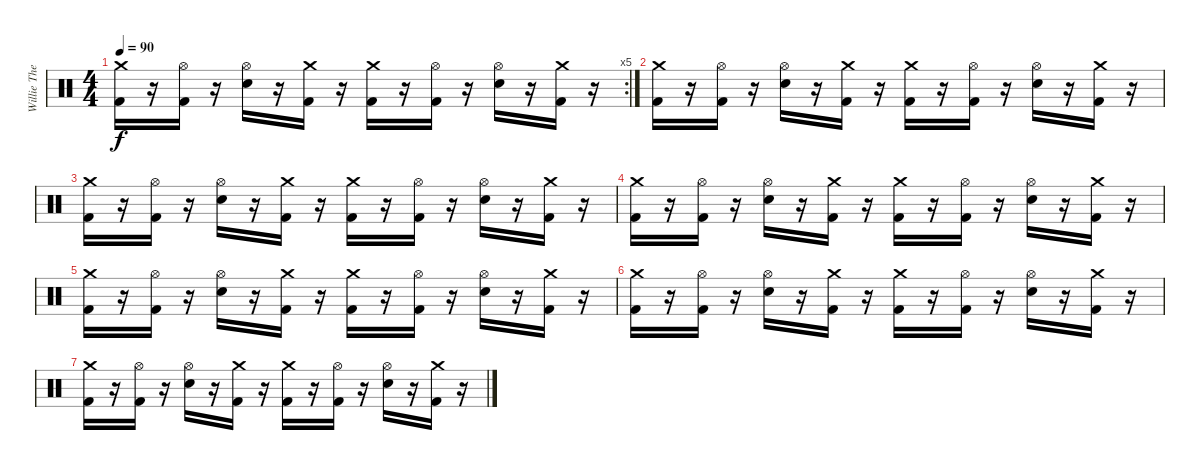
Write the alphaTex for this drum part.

\track ("Willie The New Guy" "Willie The") {instrument percussion}
\staff {score}
\articulation defaults
\rc 5
\ts (4 4)
\tempo 90
\clef neutral
\ks c
("Crash medium (hit)" "Kick (hit) 2").16{dy f} r.16 ("Hi-Hat (open)" "Kick (hit) 2").16 r.16 ("Hi-Hat (open)" "Snare (hit) 2").16 r.16 ("Crash medium (hit)" "Kick (hit) 2").16 r.16 ("Crash medium (hit)" "Kick (hit) 2").16 r.16 ("Hi-Hat (open)" "Kick (hit) 2").16 r.16 ("Hi-Hat (open)" "Snare (hit) 2").16 r.16 ("Crash medium (hit)" "Kick (hit) 2").16 r.16 |
("Crash medium (hit)" "Kick (hit) 2").16{volume 12} r.16 ("Hi-Hat (open)" "Kick (hit) 2").16 r.16 ("Hi-Hat (open)" "Snare (hit) 2").16 r.16 ("Crash medium (hit)" "Kick (hit) 2").16 r.16 ("Crash medium (hit)" "Kick (hit) 2").16 r.16 ("Hi-Hat (open)" "Kick (hit) 2").16 r.16 ("Hi-Hat (open)" "Snare (hit) 2").16 r.16 ("Crash medium (hit)" "Kick (hit) 2").16 r.16 |
("Crash medium (hit)" "Kick (hit) 2").16{volume 10} r.16 ("Hi-Hat (open)" "Kick (hit) 2").16 r.16 ("Hi-Hat (open)" "Snare (hit) 2").16 r.16 ("Crash medium (hit)" "Kick (hit) 2").16 r.16 ("Crash medium (hit)" "Kick (hit) 2").16 r.16 ("Hi-Hat (open)" "Kick (hit) 2").16 r.16 ("Hi-Hat (open)" "Snare (hit) 2").16 r.16 ("Crash medium (hit)" "Kick (hit) 2").16 r.16 |
("Crash medium (hit)" "Kick (hit) 2").16{volume 8} r.16 ("Hi-Hat (open)" "Kick (hit) 2").16 r.16 ("Hi-Hat (open)" "Snare (hit) 2").16 r.16 ("Crash medium (hit)" "Kick (hit) 2").16 r.16 ("Crash medium (hit)" "Kick (hit) 2").16 r.16 ("Hi-Hat (open)" "Kick (hit) 2").16 r.16 ("Hi-Hat (open)" "Snare (hit) 2").16 r.16 ("Crash medium (hit)" "Kick (hit) 2").16 r.16 |
("Crash medium (hit)" "Kick (hit) 2").16{volume 6} r.16 ("Hi-Hat (open)" "Kick (hit) 2").16 r.16 ("Hi-Hat (open)" "Snare (hit) 2").16 r.16 ("Crash medium (hit)" "Kick (hit) 2").16 r.16 ("Crash medium (hit)" "Kick (hit) 2").16 r.16 ("Hi-Hat (open)" "Kick (hit) 2").16 r.16 ("Hi-Hat (open)" "Snare (hit) 2").16 r.16 ("Crash medium (hit)" "Kick (hit) 2").16 r.16 |
("Crash medium (hit)" "Kick (hit) 2").16{volume 4} r.16 ("Hi-Hat (open)" "Kick (hit) 2").16 r.16 ("Hi-Hat (open)" "Snare (hit) 2").16 r.16 ("Crash medium (hit)" "Kick (hit) 2").16 r.16 ("Crash medium (hit)" "Kick (hit) 2").16 r.16 ("Hi-Hat (open)" "Kick (hit) 2").16 r.16 ("Hi-Hat (open)" "Snare (hit) 2").16 r.16 ("Crash medium (hit)" "Kick (hit) 2").16 r.16 |
("Crash medium (hit)" "Kick (hit) 2").16{volume 2} r.16 ("Hi-Hat (open)" "Kick (hit) 2").16 r.16 ("Hi-Hat (open)" "Snare (hit) 2").16 r.16 ("Crash medium (hit)" "Kick (hit) 2").16 r.16 ("Crash medium (hit)" "Kick (hit) 2").16 r.16 ("Hi-Hat (open)" "Kick (hit) 2").16 r.16 ("Hi-Hat (open)" "Snare (hit) 2").16 r.16 ("Crash medium (hit)" "Kick (hit) 2").16 r.16
